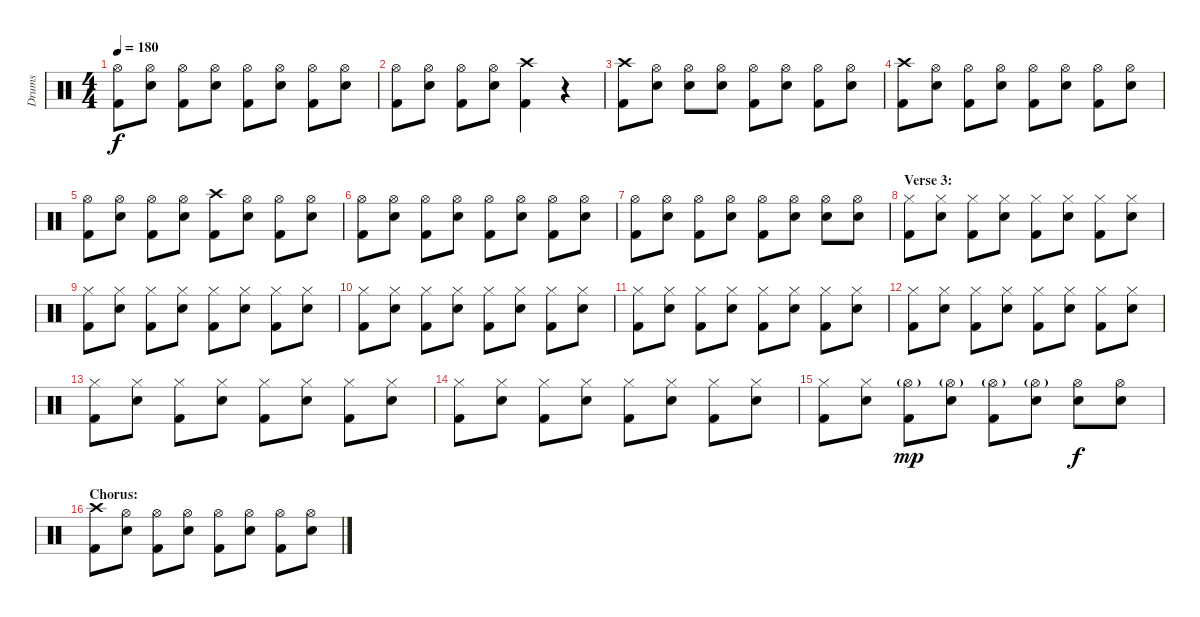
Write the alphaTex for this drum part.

\track ("Drums" "Drums") {instrument percussion}
\staff {score}
\articulation defaults
\ts (4 4)
\tempo 180
\clef neutral
\ks c
("Hi-Hat (open)" "Kick (hit) 2").8{dy f} ("Hi-Hat (open)" "Electric Snare (hit)").8 ("Hi-Hat (open)" "Kick (hit) 2").8 ("Hi-Hat (open)" "Electric Snare (hit)").8 ("Hi-Hat (open)" "Kick (hit) 2").8 ("Hi-Hat (open)" "Electric Snare (hit)").8 ("Hi-Hat (open)" "Kick (hit) 2").8 ("Hi-Hat (open)" "Electric Snare (hit)").8 |
("Hi-Hat (open)" "Kick (hit) 2").8 ("Hi-Hat (open)" "Electric Snare (hit)").8 ("Hi-Hat (open)" "Kick (hit) 2").8 ("Hi-Hat (open)" "Electric Snare (hit)").8 ("Crash high (hit)" "Kick (hit) 2").4 r.4 |
("Crash high (hit)" "Kick (hit) 2").8 ("Hi-Hat (open)" "Electric Snare (hit)").8 ("Hi-Hat (open)" "Electric Snare (hit)").8 ("Hi-Hat (open)" "Electric Snare (hit)").8 ("Hi-Hat (open)" "Kick (hit) 2").8 ("Hi-Hat (open)" "Electric Snare (hit)").8 ("Hi-Hat (open)" "Kick (hit) 2").8 ("Hi-Hat (open)" "Electric Snare (hit)").8 |
("Crash high (hit)" "Kick (hit) 2").8 ("Hi-Hat (open)" "Electric Snare (hit)").8 ("Hi-Hat (open)" "Kick (hit) 2").8 ("Hi-Hat (open)" "Electric Snare (hit)").8 ("Hi-Hat (open)" "Kick (hit) 2").8 ("Hi-Hat (open)" "Electric Snare (hit)").8 ("Hi-Hat (open)" "Kick (hit) 2").8 ("Hi-Hat (open)" "Electric Snare (hit)").8 |
("Hi-Hat (open)" "Kick (hit) 2").8 ("Hi-Hat (open)" "Electric Snare (hit)").8 ("Hi-Hat (open)" "Kick (hit) 2").8 ("Hi-Hat (open)" "Electric Snare (hit)").8 ("Crash high (hit)" "Kick (hit) 2").8 ("Hi-Hat (open)" "Electric Snare (hit)").8 ("Hi-Hat (open)" "Kick (hit) 2").8 ("Hi-Hat (open)" "Electric Snare (hit)").8 |
("Hi-Hat (open)" "Kick (hit) 2").8 ("Hi-Hat (open)" "Electric Snare (hit)").8 ("Hi-Hat (open)" "Kick (hit) 2").8 ("Hi-Hat (open)" "Electric Snare (hit)").8 ("Hi-Hat (open)" "Kick (hit) 2").8 ("Hi-Hat (open)" "Electric Snare (hit)").8 ("Hi-Hat (open)" "Kick (hit) 2").8 ("Hi-Hat (open)" "Electric Snare (hit)").8 |
("Hi-Hat (open)" "Kick (hit) 2").8 ("Hi-Hat (open)" "Electric Snare (hit)").8 ("Hi-Hat (open)" "Kick (hit) 2").8 ("Hi-Hat (open)" "Electric Snare (hit)").8 ("Hi-Hat (open)" "Kick (hit) 2").8 ("Hi-Hat (open)" "Electric Snare (hit)").8 ("Hi-Hat (open)" "Electric Snare (hit)").8 ("Hi-Hat (open)" "Electric Snare (hit)").8 |
\section ("" "Verse 3:")
("Hi-Hat (closed)" "Kick (hit) 2").8 ("Hi-Hat (closed)" "Electric Snare (hit)").8 ("Hi-Hat (closed)" "Kick (hit) 2").8 ("Hi-Hat (closed)" "Electric Snare (hit)").8 ("Hi-Hat (closed)" "Kick (hit) 2").8 ("Hi-Hat (closed)" "Electric Snare (hit)").8 ("Hi-Hat (closed)" "Kick (hit) 2").8 ("Hi-Hat (closed)" "Electric Snare (hit)").8 |
("Hi-Hat (closed)" "Kick (hit) 2").8 ("Hi-Hat (closed)" "Electric Snare (hit)").8 ("Hi-Hat (closed)" "Kick (hit) 2").8 ("Hi-Hat (closed)" "Electric Snare (hit)").8 ("Hi-Hat (closed)" "Kick (hit) 2").8 ("Hi-Hat (closed)" "Electric Snare (hit)").8 ("Hi-Hat (closed)" "Kick (hit) 2").8 ("Hi-Hat (closed)" "Electric Snare (hit)").8 |
("Hi-Hat (closed)" "Kick (hit) 2").8 ("Hi-Hat (closed)" "Electric Snare (hit)").8 ("Hi-Hat (closed)" "Kick (hit) 2").8 ("Hi-Hat (closed)" "Electric Snare (hit)").8 ("Hi-Hat (closed)" "Kick (hit) 2").8 ("Hi-Hat (closed)" "Electric Snare (hit)").8 ("Hi-Hat (closed)" "Kick (hit) 2").8 ("Hi-Hat (closed)" "Electric Snare (hit)").8 |
("Hi-Hat (closed)" "Kick (hit) 2").8 ("Hi-Hat (closed)" "Electric Snare (hit)").8 ("Hi-Hat (closed)" "Kick (hit) 2").8 ("Hi-Hat (closed)" "Electric Snare (hit)").8 ("Hi-Hat (closed)" "Kick (hit) 2").8 ("Hi-Hat (closed)" "Electric Snare (hit)").8 ("Hi-Hat (closed)" "Kick (hit) 2").8 ("Hi-Hat (closed)" "Electric Snare (hit)").8 |
("Hi-Hat (closed)" "Kick (hit) 2").8 ("Hi-Hat (closed)" "Electric Snare (hit)").8 ("Hi-Hat (closed)" "Kick (hit) 2").8 ("Hi-Hat (closed)" "Electric Snare (hit)").8 ("Hi-Hat (closed)" "Kick (hit) 2").8 ("Hi-Hat (closed)" "Electric Snare (hit)").8 ("Hi-Hat (closed)" "Kick (hit) 2").8 ("Hi-Hat (closed)" "Electric Snare (hit)").8 |
("Hi-Hat (closed)" "Kick (hit) 2").8 ("Hi-Hat (closed)" "Electric Snare (hit)").8 ("Hi-Hat (closed)" "Kick (hit) 2").8 ("Hi-Hat (closed)" "Electric Snare (hit)").8 ("Hi-Hat (closed)" "Kick (hit) 2").8 ("Hi-Hat (closed)" "Electric Snare (hit)").8 ("Hi-Hat (closed)" "Kick (hit) 2").8 ("Hi-Hat (closed)" "Electric Snare (hit)").8 |
("Hi-Hat (closed)" "Kick (hit) 2").8 ("Hi-Hat (closed)" "Electric Snare (hit)").8 ("Hi-Hat (closed)" "Kick (hit) 2").8 ("Hi-Hat (closed)" "Electric Snare (hit)").8 ("Hi-Hat (closed)" "Kick (hit) 2").8 ("Hi-Hat (closed)" "Electric Snare (hit)").8 ("Hi-Hat (closed)" "Kick (hit) 2").8 ("Hi-Hat (closed)" "Electric Snare (hit)").8 |
("Hi-Hat (closed)" "Kick (hit) 2").8 ("Hi-Hat (closed)" "Electric Snare (hit)").8 ("Hi-Hat (open)"{g} "Kick (hit) 2").8{dy mp} ("Hi-Hat (open)"{g} "Electric Snare (hit)").8 ("Hi-Hat (open)"{g} "Kick (hit) 2").8 ("Hi-Hat (open)"{g} "Electric Snare (hit)").8 ("Hi-Hat (open)" "Electric Snare (hit)").8{dy f} ("Hi-Hat (open)" "Electric Snare (hit)").8 |
\section ("" "Chorus:")
("Crash high (hit)" "Kick (hit) 2").8 ("Hi-Hat (open)" "Electric Snare (hit)").8 ("Hi-Hat (open)" "Kick (hit) 2").8 ("Hi-Hat (open)" "Electric Snare (hit)").8 ("Hi-Hat (open)" "Kick (hit) 2").8 ("Hi-Hat (open)" "Electric Snare (hit)").8 ("Hi-Hat (open)" "Kick (hit) 2").8 ("Hi-Hat (open)" "Electric Snare (hit)").8
